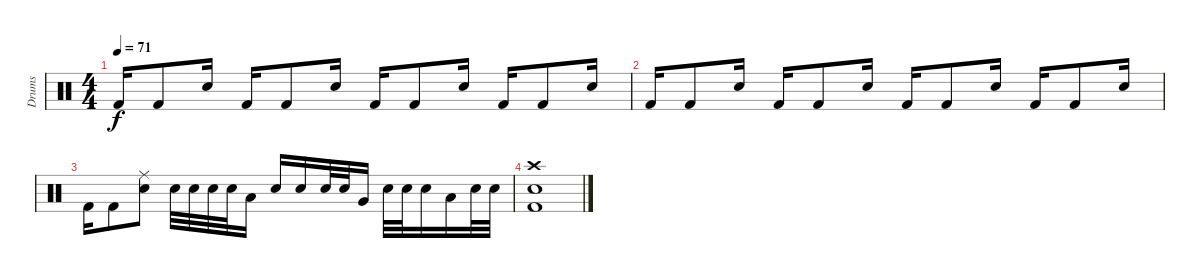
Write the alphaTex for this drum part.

\track ("Drums" "Drums") {instrument percussion}
\staff {score}
\articulation defaults
\ts (4 4)
\tempo 71
\clef neutral
\ks c "Kick (hit) 2".16{dy f} "Kick (hit) 2".8 "Electric Snare (hit)".16 "Kick (hit) 2".16 "Kick (hit) 2".8 "Electric Snare (hit)".16 "Kick (hit) 2".16 "Kick (hit) 2".8 "Electric Snare (hit)".16 "Kick (hit) 2".16 "Kick (hit) 2".8 "Electric Snare (hit)".16
|
"Kick (hit) 2".16 "Kick (hit) 2".8 "Electric Snare (hit)".16 "Kick (hit) 2".16 "Kick (hit) 2".8 "Electric Snare (hit)".16 "Kick (hit) 2".16 "Kick (hit) 2".8 "Electric Snare (hit)".16 "Kick (hit) 2".16 "Kick (hit) 2".8 "Electric Snare (hit)".16 |
"Kick (hit) 2".16 "Kick (hit) 2".8 ("Ride (middle)" "Electric Snare (hit)").8 "Electric Snare (hit)".32 "Electric Snare (hit)".32 "Electric Snare (hit)".32 "Electric Snare (hit)".32 "Low Tom (hit)".16 "Electric Snare (hit)".16 "Electric Snare (hit)".16 "Electric Snare (hit)".32 "Electric Snare (hit)".32 "Very Low Tom (hit)".16 "Electric Snare (hit)".32 "Electric Snare (hit)".32 "Electric Snare (hit)".16 "Low Floor Tom (hit)".16 "Electric Snare (hit)".32 "Electric Snare (hit)".32 |
("Crash high (hit)" "Electric Snare (hit)" "Kick (hit) 2").1
